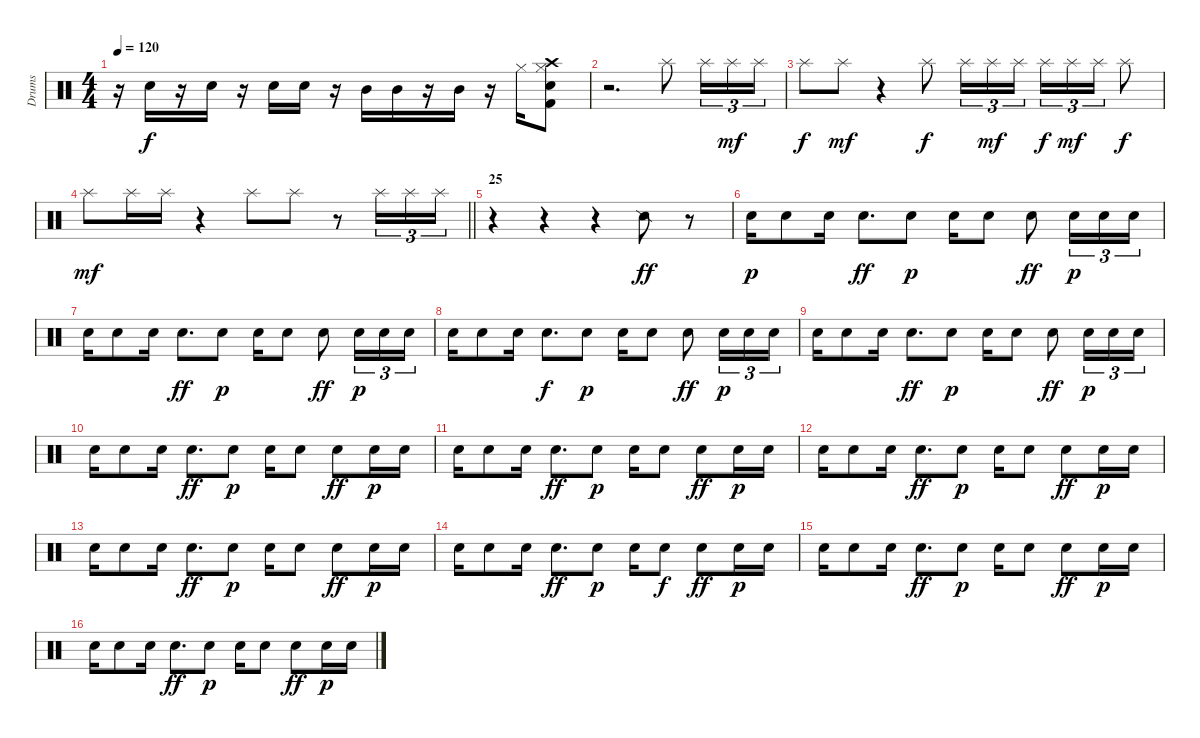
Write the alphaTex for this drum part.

\track ("Drums" "Drums") {instrument percussion}
\staff {score}
\articulation defaults
\ts (4 4)
\tempo 120
\clef neutral
\ks c
r.16{dy f} "Snare (hit) 2".16 r.16 "Snare (hit) 2".16 r.16 "Snare (hit) 2".16 "Snare (hit) 2".16 r.16 "Mid Tom (hit)".16 "Mid Tom (hit)".16 r.16 "Mid Tom (hit)".16 r.16 "Hi-Hat (closed)".16 ("Crash high (hit)" "Snare (hit) 2" "Kick (hit) 2" "Hi-Hat (closed)").8 |
r.2{d} "Splash (hit)".8 "Splash (hit)".16{tu (3 2)} "Splash (hit)".16{tu (3 2) dy mf} "Splash (hit)".16{tu (3 2)} |
"Splash (hit)".8{dy f} "Splash (hit)".8{dy mf} r.4 "Splash (hit)".8{dy f} "Splash (hit)".16{tu (3 2)} "Splash (hit)".16{tu (3 2) dy mf} "Splash (hit)".16{tu (3 2)} "Splash (hit)".16{tu (3 2) dy f} "Splash (hit)".16{tu (3 2) dy mf} "Splash (hit)".16{tu (3 2)} "Splash (hit)".8{dy f} |
\barLineRight lightlight "Splash (hit)".8{dy mf} "Splash (hit)".16 "Splash (hit)".16
r.4 "Splash (hit)".8 "Splash (hit)".8 r.8 "Splash (hit)".16{tu (3 2)} "Splash (hit)".16{tu (3 2)} "Splash (hit)".16{tu (3 2)} |
\section ("" "25")
r.4 r.4 r.4 "Snare (side stick) 2".8{dy ff} r.8 |
"Snare (hit) 2".16{dy p} "Snare (hit) 2".8 "Snare (hit) 2".16 "Snare (hit) 2".8{d dy ff} "Snare (hit) 2".8{dy p} "Snare (hit) 2".16 "Snare (hit) 2".8 "Snare (hit) 2".8{dy ff} "Snare (hit) 2".16{tu (3 2) dy p} "Snare (hit) 2".16{tu (3 2)} "Snare (hit) 2".16{tu (3 2)} |
"Snare (hit) 2".16 "Snare (hit) 2".8 "Snare (hit) 2".16 "Snare (hit) 2".8{d dy ff} "Snare (hit) 2".8{dy p} "Snare (hit) 2".16 "Snare (hit) 2".8 "Snare (hit) 2".8{dy ff} "Snare (hit) 2".16{tu (3 2) dy p} "Snare (hit) 2".16{tu (3 2)} "Snare (hit) 2".16{tu (3 2)} |
"Snare (hit) 2".16 "Snare (hit) 2".8 "Snare (hit) 2".16 "Snare (hit) 2".8{d dy f} "Snare (hit) 2".8{dy p} "Snare (hit) 2".16 "Snare (hit) 2".8 "Snare (hit) 2".8{dy ff} "Snare (hit) 2".16{tu (3 2) dy p} "Snare (hit) 2".16{tu (3 2)} "Snare (hit) 2".16{tu (3 2)} |
"Snare (hit) 2".16 "Snare (hit) 2".8 "Snare (hit) 2".16 "Snare (hit) 2".8{d dy ff} "Snare (hit) 2".8{dy p} "Snare (hit) 2".16 "Snare (hit) 2".8 "Snare (hit) 2".8{dy ff} "Snare (hit) 2".16{tu (3 2) dy p} "Snare (hit) 2".16{tu (3 2)} "Snare (hit) 2".16{tu (3 2)} |
"Snare (hit) 2".16 "Snare (hit) 2".8 "Snare (hit) 2".16 "Snare (hit) 2".8{d dy ff} "Snare (hit) 2".8{dy p} "Snare (hit) 2".16 "Snare (hit) 2".8 "Snare (hit) 2".8{dy ff} "Snare (hit) 2".16{dy p} "Snare (hit) 2".16 |
"Snare (hit) 2".16 "Snare (hit) 2".8 "Snare (hit) 2".16 "Snare (hit) 2".8{d dy ff} "Snare (hit) 2".8{dy p} "Snare (hit) 2".16 "Snare (hit) 2".8 "Snare (hit) 2".8{dy ff} "Snare (hit) 2".16{dy p} "Snare (hit) 2".16 |
"Snare (hit) 2".16 "Snare (hit) 2".8 "Snare (hit) 2".16 "Snare (hit) 2".8{d dy ff} "Snare (hit) 2".8{dy p} "Snare (hit) 2".16 "Snare (hit) 2".8 "Snare (hit) 2".8{dy ff} "Snare (hit) 2".16{dy p} "Snare (hit) 2".16 |
"Snare (hit) 2".16 "Snare (hit) 2".8 "Snare (hit) 2".16 "Snare (hit) 2".8{d dy ff} "Snare (hit) 2".8{dy p} "Snare (hit) 2".16 "Snare (hit) 2".8 "Snare (hit) 2".8{dy ff} "Snare (hit) 2".16{dy p} "Snare (hit) 2".16 |
"Snare (hit) 2".16 "Snare (hit) 2".8 "Snare (hit) 2".16 "Snare (hit) 2".8{d dy ff} "Snare (hit) 2".8{dy p} "Snare (hit) 2".16 "Snare (hit) 2".8{dy f} "Snare (hit) 2".8{dy ff} "Snare (hit) 2".16{dy p} "Snare (hit) 2".16 |
"Snare (hit) 2".16 "Snare (hit) 2".8 "Snare (hit) 2".16 "Snare (hit) 2".8{d dy ff} "Snare (hit) 2".8{dy p} "Snare (hit) 2".16 "Snare (hit) 2".8 "Snare (hit) 2".8{dy ff} "Snare (hit) 2".16{dy p} "Snare (hit) 2".16 |
"Snare (hit) 2".16 "Snare (hit) 2".8 "Snare (hit) 2".16 "Snare (hit) 2".8{d dy ff} "Snare (hit) 2".8{dy p} "Snare (hit) 2".16 "Snare (hit) 2".8 "Snare (hit) 2".8{dy ff} "Snare (hit) 2".16{dy p} "Snare (hit) 2".16
